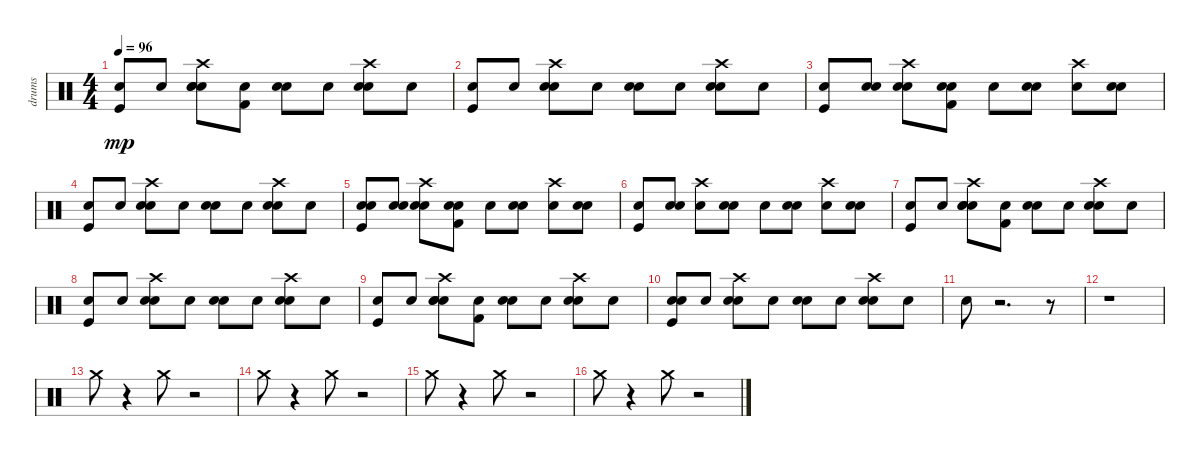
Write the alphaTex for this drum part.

\track ("drums" "drums") {instrument percussion}
\staff {score}
\articulation defaults
\ts (4 4)
\tempo 96
\clef neutral
\ks c
("Snare (hit) 2" "Kick (hit)").8{dy mp} "Snare (hit) 2".8 ("Snare (hit) 2" "Snare (hit) 2" "Electric Snare (hit)" "Crash high (hit)").8 ("Snare (hit) 2" "Kick (hit) 2").8 ("Snare (hit) 2" "Snare (hit) 2").8 "Snare (hit) 2".8 ("Snare (hit) 2" "Snare (hit) 2" "Crash high (hit)").8 "Snare (hit) 2".8 |
("Kick (hit)" "Snare (hit) 2").8 "Snare (hit) 2".8 ("Snare (hit) 2" "Crash high (hit)" "Snare (hit) 2").8 "Snare (hit) 2".8 ("Snare (hit) 2" "Snare (hit) 2").8 "Snare (hit) 2".8 ("Snare (hit) 2" "Snare (hit) 2" "Crash high (hit)").8 "Snare (hit) 2".8 |
("Kick (hit)" "Snare (hit) 2").8 ("Snare (hit) 2" "Snare (hit) 2").8 ("Crash high (hit)" "Electric Snare (hit)" "Snare (hit) 2").8 ("Kick (hit) 2" "Snare (hit) 2" "Snare (hit) 2").8 "Snare (hit) 2".8 ("Snare (hit) 2" "Snare (hit) 2").8 ("Snare (hit) 2" "Crash high (hit)").8 ("Snare (hit) 2" "Snare (hit) 2").8 |
("Kick (hit)" "Snare (hit) 2").8 "Snare (hit) 2".8 ("Snare (hit) 2" "Crash high (hit)" "Snare (hit) 2").8 "Snare (hit) 2".8 ("Snare (hit) 2" "Snare (hit) 2").8 "Snare (hit) 2".8 ("Snare (hit) 2" "Snare (hit) 2" "Crash high (hit)").8 "Snare (hit) 2".8 |
("Kick (hit)" "Snare (hit) 2" "Snare (hit) 2").8 ("Snare (hit) 2" "Snare (hit) 2").8 ("Crash high (hit)" "Electric Snare (hit)" "Snare (hit) 2").8 ("Kick (hit) 2" "Snare (hit) 2" "Snare (hit) 2").8 "Snare (hit) 2".8 ("Snare (hit) 2" "Snare (hit) 2").8 ("Snare (hit) 2" "Crash high (hit)").8 ("Snare (hit) 2" "Snare (hit) 2").8 |
("Kick (hit)" "Snare (hit) 2").8 ("Snare (hit) 2" "Snare (hit) 2").8 ("Crash high (hit)" "Snare (hit) 2").8 ("Snare (hit) 2" "Snare (hit) 2").8 "Snare (hit) 2".8 ("Snare (hit) 2" "Snare (hit) 2").8 ("Snare (hit) 2" "Crash high (hit)").8 ("Snare (hit) 2" "Snare (hit) 2").8 |
("Snare (hit) 2" "Kick (hit)").8 "Snare (hit) 2".8 ("Snare (hit) 2" "Crash high (hit)" "Electric Snare (hit)" "Snare (hit) 2").8 ("Kick (hit) 2" "Snare (hit) 2").8 ("Snare (hit) 2" "Snare (hit) 2").8 "Snare (hit) 2".8 ("Snare (hit) 2" "Snare (hit) 2" "Crash high (hit)").8 "Snare (hit) 2".8 |
("Kick (hit)" "Snare (hit) 2").8 "Snare (hit) 2".8 ("Snare (hit) 2" "Crash high (hit)" "Snare (hit) 2").8 "Snare (hit) 2".8 ("Snare (hit) 2" "Snare (hit) 2").8 "Snare (hit) 2".8 ("Snare (hit) 2" "Snare (hit) 2" "Crash high (hit)").8 "Snare (hit) 2".8 |
("Snare (hit) 2" "Kick (hit)").8 "Snare (hit) 2".8 ("Snare (hit) 2" "Crash high (hit)" "Electric Snare (hit)" "Snare (hit) 2").8 ("Kick (hit) 2" "Snare (hit) 2").8 ("Snare (hit) 2" "Snare (hit) 2").8 "Snare (hit) 2".8 ("Snare (hit) 2" "Snare (hit) 2" "Crash high (hit)").8 "Snare (hit) 2".8 |
("Snare (hit) 2" "Snare (hit) 2" "Kick (hit)").8 "Snare (hit) 2".8 ("Snare (hit) 2" "Crash high (hit)" "Snare (hit) 2").8 "Snare (hit) 2".8 ("Snare (hit) 2" "Snare (hit) 2").8 "Snare (hit) 2".8 ("Snare (hit) 2" "Snare (hit) 2" "Crash high (hit)").8 "Snare (hit) 2".8 |
"Snare (hit) 2".8 r.2{d} r.8 |
r.1 |
"Crash medium (hit)".8 r.4 "Crash medium (hit)".8 r.2 |
"Crash medium (hit)".8 r.4 "Crash medium (hit)".8 r.2 |
"Crash medium (hit)".8 r.4 "Crash medium (hit)".8 r.2 |
"Crash medium (hit)".8 r.4 "Crash medium (hit)".8 r.2
